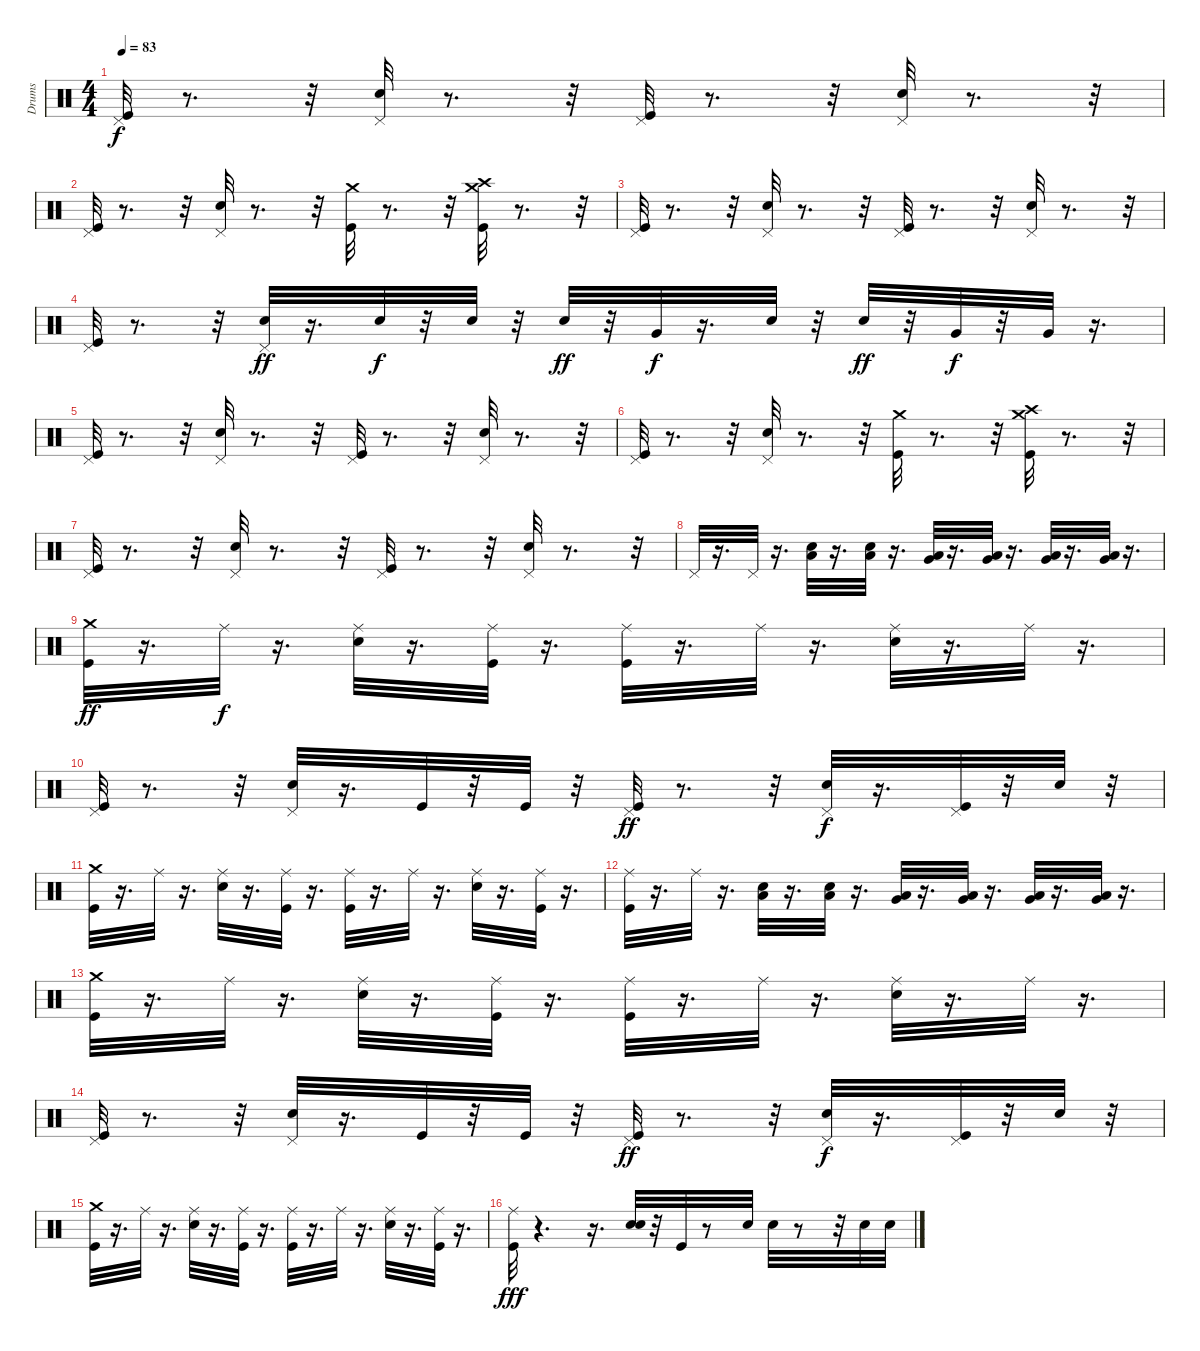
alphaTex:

\track ("Drums" "Drums") {instrument percussion}
\staff {score}
\articulation defaults
\ts (4 4)
\tempo 83
\clef neutral
\ks c
("Kick (hit)" "Pedal Hi-Hat (hit)").32{dy f} r.8{d} r.32 ("Pedal Hi-Hat (hit)" "Snare (hit) 2").32 r.8{d} r.32 ("Kick (hit)" "Pedal Hi-Hat (hit)").32 r.8{d} r.32 ("Pedal Hi-Hat (hit)" "Snare (hit) 2").32 r.8{d} r.32 |
("Pedal Hi-Hat (hit)" "Kick (hit)").32 r.8{d} r.32 ("Pedal Hi-Hat (hit)" "Snare (hit) 2").32 r.8{d} r.32 ("Crash medium (hit)" "Kick (hit)").32 r.8{d} r.32 ("Crash medium (hit)" "Crash high (hit)" "Kick (hit)").32 r.8{d} r.32 |
("Pedal Hi-Hat (hit)" "Kick (hit)").32 r.8{d} r.32 ("Pedal Hi-Hat (hit)" "Snare (hit) 2").32 r.8{d} r.32 ("Pedal Hi-Hat (hit)" "Kick (hit)").32 r.8{d} r.32 ("Pedal Hi-Hat (hit)" "Snare (hit) 2").32 r.8{d} r.32 |
("Pedal Hi-Hat (hit)" "Kick (hit)").32 r.8{d} r.32 ("Snare (hit) 2" "Pedal Hi-Hat (hit)").32{dy ff} r.16{d} "Snare (hit) 2".32{dy f} r.32 "Snare (hit) 2".32 r.32 "Snare (hit) 2".32{dy ff} r.32 "Very Low Tom (hit)".32{dy f} r.16{d} "Snare (hit) 2".32 r.32 "Snare (hit) 2".32{dy ff} r.32 "Very Low Tom (hit)".32{dy f} r.32 "Very Low Tom (hit)".32 r.16{d} |
("Kick (hit)" "Pedal Hi-Hat (hit)").32 r.8{d} r.32 ("Pedal Hi-Hat (hit)" "Snare (hit) 2").32 r.8{d} r.32 ("Kick (hit)" "Pedal Hi-Hat (hit)").32 r.8{d} r.32 ("Pedal Hi-Hat (hit)" "Snare (hit) 2").32 r.8{d} r.32 |
("Pedal Hi-Hat (hit)" "Kick (hit)").32 r.8{d} r.32 ("Pedal Hi-Hat (hit)" "Snare (hit) 2").32 r.8{d} r.32 ("Crash medium (hit)" "Kick (hit)").32 r.8{d} r.32 ("Crash medium (hit)" "Crash high (hit)" "Kick (hit)").32 r.8{d} r.32 |
("Pedal Hi-Hat (hit)" "Kick (hit)").32 r.8{d} r.32 ("Pedal Hi-Hat (hit)" "Snare (hit) 2").32 r.8{d} r.32 ("Pedal Hi-Hat (hit)" "Kick (hit)").32 r.8{d} r.32 ("Pedal Hi-Hat (hit)" "Snare (hit) 2").32 r.8{d} r.32 |
"Pedal Hi-Hat (hit)".32 r.16{d} "Pedal Hi-Hat (hit)".32 r.16{d} ("Low Tom (hit)" "Snare (hit) 2").32 r.16{d} ("Low Tom (hit)" "Snare (hit) 2").32 r.16{d} ("Very Low Tom (hit)" "Low Tom (hit)").32 r.16{d} ("Very Low Tom (hit)" "Low Tom (hit)").32 r.16{d} ("Low Floor Tom (hit)" "Very Low Tom (hit)").32 r.16{d} ("Low Floor Tom (hit)" "Very Low Tom (hit)").32 r.16{d} |
("Crash medium (hit)" "Kick (hit)").32{dy ff} r.16{d} "Ride (middle)".32{dy f} r.16{d} ("Ride (middle)" "Snare (hit) 2").32 r.16{d} ("Ride (middle)" "Kick (hit)").32 r.16{d} ("Ride (middle)" "Kick (hit)").32 r.16{d} "Ride (middle)".32 r.16{d} ("Ride (middle)" "Snare (hit) 2").32 r.16{d} "Ride (middle)".32 r.16{d} |
("Pedal Hi-Hat (hit)" "Kick (hit)").32 r.8{d} r.32 ("Pedal Hi-Hat (hit)" "Snare (hit) 2").32 r.16{d} "Kick (hit)".32 r.32 "Kick (hit)".32 r.32 ("Pedal Hi-Hat (hit)" "Kick (hit)").32{dy ff} r.8{d} r.32 ("Pedal Hi-Hat (hit)" "Snare (hit) 2").32{dy f} r.16{d} ("Pedal Hi-Hat (hit)" "Kick (hit)").32 r.32 "Snare (hit) 2".32 r.32 |
("Crash medium (hit)" "Kick (hit)").32 r.16{d} "Ride (middle)".32 r.16{d} ("Ride (middle)" "Snare (hit) 2").32 r.16{d} ("Ride (middle)" "Kick (hit)").32 r.16{d} ("Ride (middle)" "Kick (hit)").32 r.16{d} "Ride (middle)".32 r.16{d} ("Ride (middle)" "Snare (hit) 2").32 r.16{d} ("Kick (hit)" "Ride (middle)").32 r.16{d} |
("Kick (hit)" "Ride (middle)").32 r.16{d} "Ride (middle)".32 r.16{d} ("Low Tom (hit)" "Snare (hit) 2").32 r.16{d} ("Low Tom (hit)" "Snare (hit) 2").32 r.16{d} ("Very Low Tom (hit)" "Low Tom (hit)").32 r.16{d} ("Very Low Tom (hit)" "Low Tom (hit)").32 r.16{d} ("Low Floor Tom (hit)" "Very Low Tom (hit)").32 r.16{d} ("Low Floor Tom (hit)" "Very Low Tom (hit)").32 r.16{d} |
("Crash medium (hit)" "Kick (hit)").32 r.16{d} "Ride (middle)".32 r.16{d} ("Ride (middle)" "Snare (hit) 2").32 r.16{d} ("Ride (middle)" "Kick (hit)").32 r.16{d} ("Ride (middle)" "Kick (hit)").32 r.16{d} "Ride (middle)".32 r.16{d} ("Ride (middle)" "Snare (hit) 2").32 r.16{d} "Ride (middle)".32 r.16{d} |
("Pedal Hi-Hat (hit)" "Kick (hit)").32 r.8{d} r.32 ("Pedal Hi-Hat (hit)" "Snare (hit) 2").32 r.16{d} "Kick (hit)".32 r.32 "Kick (hit)".32 r.32 ("Pedal Hi-Hat (hit)" "Kick (hit)").32{dy ff} r.8{d} r.32 ("Pedal Hi-Hat (hit)" "Snare (hit) 2").32{dy f} r.16{d} ("Pedal Hi-Hat (hit)" "Kick (hit)").32 r.32 "Snare (hit) 2".32 r.32 |
("Crash medium (hit)" "Kick (hit)").32 r.16{d} "Ride (middle)".32 r.16{d} ("Ride (middle)" "Snare (hit) 2").32 r.16{d} ("Ride (middle)" "Kick (hit)").32 r.16{d} ("Ride (middle)" "Kick (hit)").32 r.16{d} "Ride (middle)".32 r.16{d} ("Ride (middle)" "Snare (hit) 2").32 r.16{d} ("Kick (hit)" "Ride (middle)").32 r.16{d} |
("Ride (middle)" "Kick (hit)").32{dy fff} r.4{d} r.16{d} ("Electric Snare (hit)" "Snare (hit) 2").32 r.32 "Kick (hit)".32 r.8 "Snare (hit) 2".32 "Snare (hit) 2".32 r.8 r.32 "Snare (hit) 2".32 "Snare (hit) 2".32
